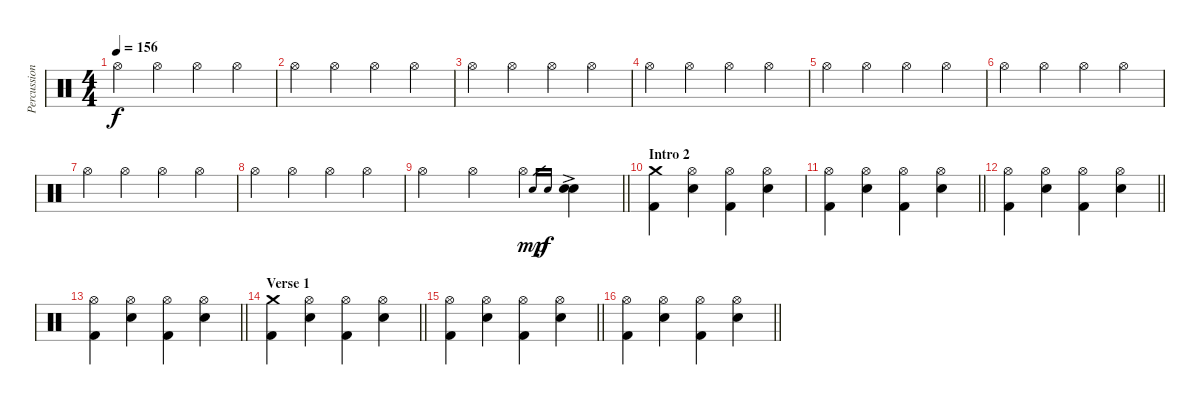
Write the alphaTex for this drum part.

\track ("Percussion" "Percussion") {instrument percussion}
\staff {score}
\articulation defaults
\ts (4 4)
\tempo 156
\clef neutral
\ks c "Hi-Hat (open)".4{dy f} "Hi-Hat (open)".4 "Hi-Hat (open)".4 "Hi-Hat (open)".4
|
"Hi-Hat (open)".4 "Hi-Hat (open)".4 "Hi-Hat (open)".4 "Hi-Hat (open)".4 |
"Hi-Hat (open)".4 "Hi-Hat (open)".4 "Hi-Hat (open)".4 "Hi-Hat (open)".4 |
"Hi-Hat (open)".4 "Hi-Hat (open)".4 "Hi-Hat (open)".4 "Hi-Hat (open)".4 |
"Hi-Hat (open)".4 "Hi-Hat (open)".4 "Hi-Hat (open)".4 "Hi-Hat (open)".4 |
"Hi-Hat (open)".4 "Hi-Hat (open)".4 "Hi-Hat (open)".4 "Hi-Hat (open)".4 |
"Hi-Hat (open)".4 "Hi-Hat (open)".4 "Hi-Hat (open)".4 "Hi-Hat (open)".4 |
"Hi-Hat (open)".4 "Hi-Hat (open)".4 "Hi-Hat (open)".4 "Hi-Hat (open)".4 |
\barLineRight lightlight "Hi-Hat (open)".4 "Hi-Hat (open)".4 "Hi-Hat (open)".4 "Snare (hit) 2".16{gr dy mp} "Snare (hit) 2".16{gr dy f}
("Snare (hit) 2"{ac} "Snare (hit) 2").4 |
\section ("" "Intro 2")
("Crash medium (hit)" "Kick (hit) 2").4 ("Hi-Hat (open)" "Snare (hit) 2").4 ("Hi-Hat (open)" "Kick (hit) 2").4 ("Hi-Hat (open)" "Snare (hit) 2").4 |
\barLineRight lightlight
("Hi-Hat (open)" "Kick (hit) 2").4 ("Hi-Hat (open)" "Snare (hit) 2").4 ("Hi-Hat (open)" "Kick (hit) 2").4 ("Hi-Hat (open)" "Snare (hit) 2").4 |
\barLineRight lightlight
("Hi-Hat (open)" "Kick (hit) 2").4 ("Hi-Hat (open)" "Snare (hit) 2").4 ("Hi-Hat (open)" "Kick (hit) 2").4 ("Hi-Hat (open)" "Snare (hit) 2").4 |
\barLineRight lightlight
("Hi-Hat (open)" "Kick (hit) 2").4 ("Hi-Hat (open)" "Snare (hit) 2").4 ("Hi-Hat (open)" "Kick (hit) 2").4 ("Hi-Hat (open)" "Snare (hit) 2").4 |
\section ("" "Verse 1")
\barLineRight lightlight
("Crash medium (hit)" "Kick (hit) 2").4 ("Hi-Hat (open)" "Snare (hit) 2").4 ("Hi-Hat (open)" "Kick (hit) 2").4 ("Hi-Hat (open)" "Snare (hit) 2").4 |
\barLineRight lightlight
("Hi-Hat (open)" "Kick (hit) 2").4 ("Hi-Hat (open)" "Snare (hit) 2").4 ("Hi-Hat (open)" "Kick (hit) 2").4 ("Hi-Hat (open)" "Snare (hit) 2").4 |
\barLineRight lightlight
("Hi-Hat (open)" "Kick (hit) 2").4 ("Hi-Hat (open)" "Snare (hit) 2").4 ("Hi-Hat (open)" "Kick (hit) 2").4 ("Hi-Hat (open)" "Snare (hit) 2").4
